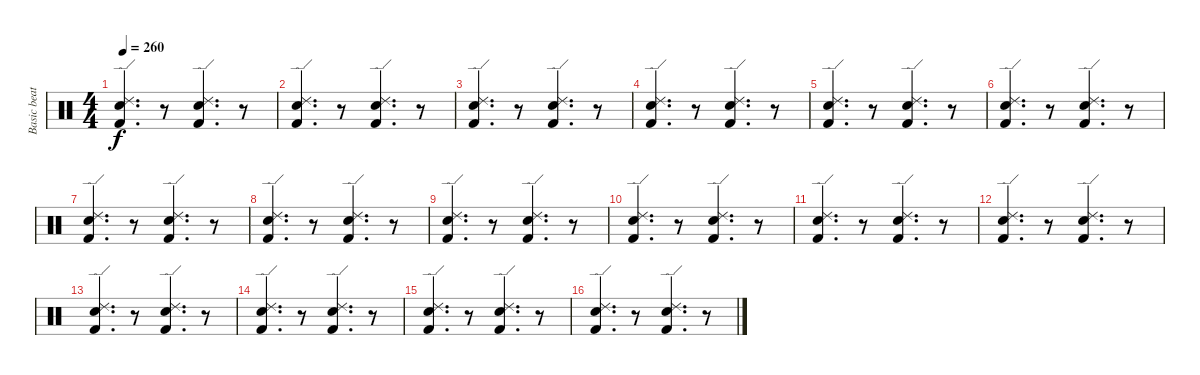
\track ("Basic beat" "Basic beat") {instrument percussion}
\staff {score}
\articulation defaults
\ts (4 4)
\tempo 260
\clef neutral
\ks c
("Ride (edge) 2" "Electric Snare (hit)" "Kick (hit) 2").4{d dy f} r.8 ("Ride (edge) 2" "Electric Snare (hit)" "Kick (hit) 2").4{d} r.8 |
("Ride (edge) 2" "Electric Snare (hit)" "Kick (hit) 2").4{d} r.8 ("Ride (edge) 2" "Electric Snare (hit)" "Kick (hit) 2").4{d} r.8 |
("Ride (edge) 2" "Electric Snare (hit)" "Kick (hit) 2").4{d} r.8 ("Ride (edge) 2" "Electric Snare (hit)" "Kick (hit) 2").4{d} r.8 |
("Ride (edge) 2" "Electric Snare (hit)" "Kick (hit) 2").4{d} r.8 ("Ride (edge) 2" "Electric Snare (hit)" "Kick (hit) 2").4{d} r.8 |
("Ride (edge) 2" "Electric Snare (hit)" "Kick (hit) 2").4{d} r.8 ("Ride (edge) 2" "Electric Snare (hit)" "Kick (hit) 2").4{d} r.8 |
("Ride (edge) 2" "Electric Snare (hit)" "Kick (hit) 2").4{d} r.8 ("Ride (edge) 2" "Electric Snare (hit)" "Kick (hit) 2").4{d} r.8 |
("Ride (edge) 2" "Electric Snare (hit)" "Kick (hit) 2").4{d} r.8 ("Ride (edge) 2" "Electric Snare (hit)" "Kick (hit) 2").4{d} r.8 |
("Ride (edge) 2" "Electric Snare (hit)" "Kick (hit) 2").4{d} r.8 ("Ride (edge) 2" "Electric Snare (hit)" "Kick (hit) 2").4{d} r.8 |
("Ride (edge) 2" "Electric Snare (hit)" "Kick (hit) 2").4{d} r.8 ("Ride (edge) 2" "Electric Snare (hit)" "Kick (hit) 2").4{d} r.8 |
("Ride (edge) 2" "Electric Snare (hit)" "Kick (hit) 2").4{d} r.8 ("Ride (edge) 2" "Electric Snare (hit)" "Kick (hit) 2").4{d} r.8 |
("Ride (edge) 2" "Electric Snare (hit)" "Kick (hit) 2").4{d} r.8 ("Ride (edge) 2" "Electric Snare (hit)" "Kick (hit) 2").4{d} r.8 |
("Ride (edge) 2" "Electric Snare (hit)" "Kick (hit) 2").4{d} r.8 ("Ride (edge) 2" "Electric Snare (hit)" "Kick (hit) 2").4{d} r.8 |
("Ride (edge) 2" "Electric Snare (hit)" "Kick (hit) 2").4{d} r.8 ("Ride (edge) 2" "Electric Snare (hit)" "Kick (hit) 2").4{d} r.8 |
("Ride (edge) 2" "Electric Snare (hit)" "Kick (hit) 2").4{d} r.8 ("Ride (edge) 2" "Electric Snare (hit)" "Kick (hit) 2").4{d} r.8 |
("Ride (edge) 2" "Electric Snare (hit)" "Kick (hit) 2").4{d} r.8 ("Ride (edge) 2" "Electric Snare (hit)" "Kick (hit) 2").4{d} r.8 |
("Ride (edge) 2" "Electric Snare (hit)" "Kick (hit) 2").4{d} r.8 ("Ride (edge) 2" "Electric Snare (hit)" "Kick (hit) 2").4{d} r.8
